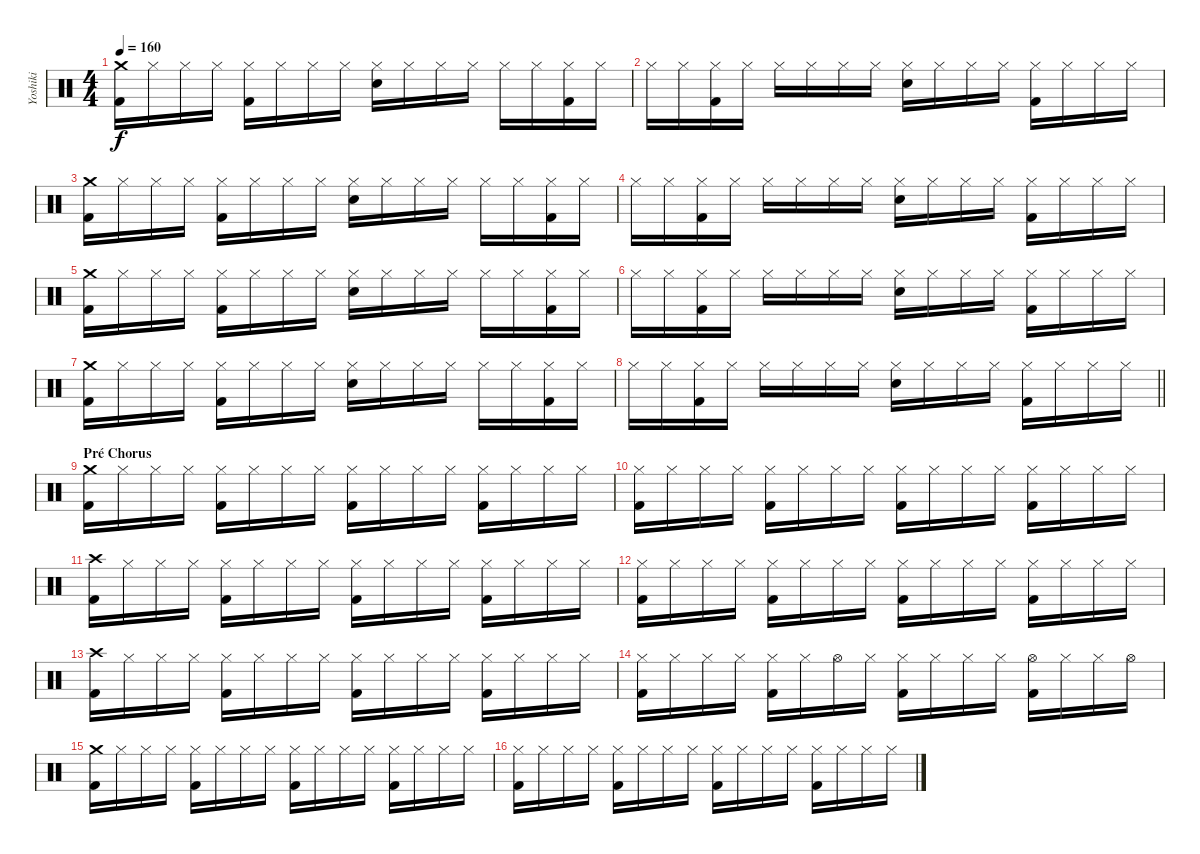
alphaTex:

\track ("Yoshiki" "Yoshiki") {instrument percussion}
\staff {score}
\articulation defaults
\ts (4 4)
\tempo 160
\clef neutral
\ks c
("Crash medium (hit)" "Kick (hit) 2").16{dy f} "Hi-Hat (closed)".16 "Hi-Hat (closed)".16 "Hi-Hat (closed)".16 ("Hi-Hat (closed)" "Kick (hit) 2").16 "Hi-Hat (closed)".16 "Hi-Hat (closed)".16 "Hi-Hat (closed)".16 ("Hi-Hat (closed)" "Snare (hit) 2").16 "Hi-Hat (closed)".16 "Hi-Hat (closed)".16 "Hi-Hat (closed)".16 "Hi-Hat (closed)".16 "Hi-Hat (closed)".16 ("Hi-Hat (closed)" "Kick (hit) 2").16 "Hi-Hat (closed)".16 |
"Hi-Hat (closed)".16 "Hi-Hat (closed)".16 ("Hi-Hat (closed)" "Kick (hit) 2").16 "Hi-Hat (closed)".16 "Hi-Hat (closed)".16 "Hi-Hat (closed)".16 "Hi-Hat (closed)".16 "Hi-Hat (closed)".16 ("Hi-Hat (closed)" "Snare (hit) 2").16 "Hi-Hat (closed)".16 "Hi-Hat (closed)".16 "Hi-Hat (closed)".16 ("Hi-Hat (closed)" "Kick (hit) 2").16 "Hi-Hat (closed)".16 "Hi-Hat (closed)".16 "Hi-Hat (closed)".16 |
("Crash medium (hit)" "Kick (hit) 2").16 "Hi-Hat (closed)".16 "Hi-Hat (closed)".16 "Hi-Hat (closed)".16 ("Hi-Hat (closed)" "Kick (hit) 2").16 "Hi-Hat (closed)".16 "Hi-Hat (closed)".16 "Hi-Hat (closed)".16 ("Hi-Hat (closed)" "Snare (hit) 2").16 "Hi-Hat (closed)".16 "Hi-Hat (closed)".16 "Hi-Hat (closed)".16 "Hi-Hat (closed)".16 "Hi-Hat (closed)".16 ("Hi-Hat (closed)" "Kick (hit) 2").16 "Hi-Hat (closed)".16 |
"Hi-Hat (closed)".16 "Hi-Hat (closed)".16 ("Hi-Hat (closed)" "Kick (hit) 2").16 "Hi-Hat (closed)".16 "Hi-Hat (closed)".16 "Hi-Hat (closed)".16 "Hi-Hat (closed)".16 "Hi-Hat (closed)".16 ("Hi-Hat (closed)" "Snare (hit) 2").16 "Hi-Hat (closed)".16 "Hi-Hat (closed)".16 "Hi-Hat (closed)".16 ("Hi-Hat (closed)" "Kick (hit) 2").16 "Hi-Hat (closed)".16 "Hi-Hat (closed)".16 "Hi-Hat (closed)".16 |
("Crash medium (hit)" "Kick (hit) 2").16 "Hi-Hat (closed)".16 "Hi-Hat (closed)".16 "Hi-Hat (closed)".16 ("Hi-Hat (closed)" "Kick (hit) 2").16 "Hi-Hat (closed)".16 "Hi-Hat (closed)".16 "Hi-Hat (closed)".16 ("Hi-Hat (closed)" "Snare (hit) 2").16 "Hi-Hat (closed)".16 "Hi-Hat (closed)".16 "Hi-Hat (closed)".16 "Hi-Hat (closed)".16 "Hi-Hat (closed)".16 ("Hi-Hat (closed)" "Kick (hit) 2").16 "Hi-Hat (closed)".16 |
"Hi-Hat (closed)".16 "Hi-Hat (closed)".16 ("Hi-Hat (closed)" "Kick (hit) 2").16 "Hi-Hat (closed)".16 "Hi-Hat (closed)".16 "Hi-Hat (closed)".16 "Hi-Hat (closed)".16 "Hi-Hat (closed)".16 ("Hi-Hat (closed)" "Snare (hit) 2").16 "Hi-Hat (closed)".16 "Hi-Hat (closed)".16 "Hi-Hat (closed)".16 ("Hi-Hat (closed)" "Kick (hit) 2").16 "Hi-Hat (closed)".16 "Hi-Hat (closed)".16 "Hi-Hat (closed)".16 |
("Crash medium (hit)" "Kick (hit) 2").16 "Hi-Hat (closed)".16 "Hi-Hat (closed)".16 "Hi-Hat (closed)".16 ("Hi-Hat (closed)" "Kick (hit) 2").16 "Hi-Hat (closed)".16 "Hi-Hat (closed)".16 "Hi-Hat (closed)".16 ("Hi-Hat (closed)" "Snare (hit) 2").16 "Hi-Hat (closed)".16 "Hi-Hat (closed)".16 "Hi-Hat (closed)".16 "Hi-Hat (closed)".16 "Hi-Hat (closed)".16 ("Hi-Hat (closed)" "Kick (hit) 2").16 "Hi-Hat (closed)".16 |
\barLineRight lightlight "Hi-Hat (closed)".16 "Hi-Hat (closed)".16
("Hi-Hat (closed)" "Kick (hit) 2").16 "Hi-Hat (closed)".16 "Hi-Hat (closed)".16 "Hi-Hat (closed)".16 "Hi-Hat (closed)".16 "Hi-Hat (closed)".16 ("Hi-Hat (closed)" "Snare (hit) 2").16 "Hi-Hat (closed)".16 "Hi-Hat (closed)".16 "Hi-Hat (closed)".16 ("Hi-Hat (closed)" "Kick (hit) 2").16 "Hi-Hat (closed)".16 "Hi-Hat (closed)".16 "Hi-Hat (closed)".16 |
\section ("" "Pré Chorus")
("Crash medium (hit)" "Kick (hit) 2").16 "Hi-Hat (closed)".16 "Hi-Hat (closed)".16 "Hi-Hat (closed)".16 ("Hi-Hat (closed)" "Kick (hit) 2").16 "Hi-Hat (closed)".16 "Hi-Hat (closed)".16 "Hi-Hat (closed)".16 ("Hi-Hat (closed)" "Kick (hit) 2").16 "Hi-Hat (closed)".16 "Hi-Hat (closed)".16 "Hi-Hat (closed)".16 ("Hi-Hat (closed)" "Kick (hit) 2").16 "Hi-Hat (closed)".16 "Hi-Hat (closed)".16 "Hi-Hat (closed)".16 |
("Hi-Hat (closed)" "Kick (hit) 2").16 "Hi-Hat (closed)".16 "Hi-Hat (closed)".16 "Hi-Hat (closed)".16 ("Hi-Hat (closed)" "Kick (hit) 2").16 "Hi-Hat (closed)".16 "Hi-Hat (closed)".16 "Hi-Hat (closed)".16 ("Hi-Hat (closed)" "Kick (hit) 2").16 "Hi-Hat (closed)".16 "Hi-Hat (closed)".16 "Hi-Hat (closed)".16 ("Hi-Hat (closed)" "Kick (hit) 2").16 "Hi-Hat (closed)".16 "Hi-Hat (closed)".16 "Hi-Hat (closed)".16 |
("Crash high (hit)" "Kick (hit) 2").16 "Hi-Hat (closed)".16 "Hi-Hat (closed)".16 "Hi-Hat (closed)".16 ("Hi-Hat (closed)" "Kick (hit) 2").16 "Hi-Hat (closed)".16 "Hi-Hat (closed)".16 "Hi-Hat (closed)".16 ("Hi-Hat (closed)" "Kick (hit) 2").16 "Hi-Hat (closed)".16 "Hi-Hat (closed)".16 "Hi-Hat (closed)".16 ("Hi-Hat (closed)" "Kick (hit) 2").16 "Hi-Hat (closed)".16 "Hi-Hat (closed)".16 "Hi-Hat (closed)".16 |
("Hi-Hat (closed)" "Kick (hit) 2").16 "Hi-Hat (closed)".16 "Hi-Hat (closed)".16 "Hi-Hat (closed)".16 ("Hi-Hat (closed)" "Kick (hit) 2").16 "Hi-Hat (closed)".16 "Hi-Hat (closed)".16 "Hi-Hat (closed)".16 ("Hi-Hat (closed)" "Kick (hit) 2").16 "Hi-Hat (closed)".16 "Hi-Hat (closed)".16 "Hi-Hat (closed)".16 ("Hi-Hat (closed)" "Kick (hit) 2").16 "Hi-Hat (closed)".16 "Hi-Hat (closed)".16 "Hi-Hat (closed)".16 |
("Crash high (hit)" "Kick (hit) 2").16 "Hi-Hat (closed)".16 "Hi-Hat (closed)".16 "Hi-Hat (closed)".16 ("Hi-Hat (closed)" "Kick (hit) 2").16 "Hi-Hat (closed)".16 "Hi-Hat (closed)".16 "Hi-Hat (closed)".16 ("Hi-Hat (closed)" "Kick (hit) 2").16 "Hi-Hat (closed)".16 "Hi-Hat (closed)".16 "Hi-Hat (closed)".16 ("Hi-Hat (closed)" "Kick (hit) 2").16 "Hi-Hat (closed)".16 "Hi-Hat (closed)".16 "Hi-Hat (closed)".16 |
("Hi-Hat (closed)" "Kick (hit) 2").16 "Hi-Hat (closed)".16 "Hi-Hat (closed)".16 "Hi-Hat (closed)".16 ("Hi-Hat (closed)" "Kick (hit) 2").16 "Hi-Hat (closed)".16 "Hi-Hat (open)".16 "Hi-Hat (closed)".16 ("Hi-Hat (closed)" "Kick (hit) 2").16 "Hi-Hat (closed)".16 "Hi-Hat (closed)".16 "Hi-Hat (closed)".16 ("Hi-Hat (open)" "Kick (hit) 2").16 "Hi-Hat (closed)".16 "Hi-Hat (closed)".16 "Hi-Hat (open)".16 |
("Crash medium (hit)" "Kick (hit) 2").16 "Hi-Hat (closed)".16 "Hi-Hat (closed)".16 "Hi-Hat (closed)".16 ("Hi-Hat (closed)" "Kick (hit) 2").16 "Hi-Hat (closed)".16 "Hi-Hat (closed)".16 "Hi-Hat (closed)".16 ("Hi-Hat (closed)" "Kick (hit) 2").16 "Hi-Hat (closed)".16 "Hi-Hat (closed)".16 "Hi-Hat (closed)".16 ("Hi-Hat (closed)" "Kick (hit) 2").16 "Hi-Hat (closed)".16 "Hi-Hat (closed)".16 "Hi-Hat (closed)".16 |
("Hi-Hat (closed)" "Kick (hit) 2").16 "Hi-Hat (closed)".16 "Hi-Hat (closed)".16 "Hi-Hat (closed)".16 ("Hi-Hat (closed)" "Kick (hit) 2").16 "Hi-Hat (closed)".16 "Hi-Hat (closed)".16 "Hi-Hat (closed)".16 ("Hi-Hat (closed)" "Kick (hit) 2").16 "Hi-Hat (closed)".16 "Hi-Hat (closed)".16 "Hi-Hat (closed)".16 ("Hi-Hat (closed)" "Kick (hit) 2").16 "Hi-Hat (closed)".16 "Hi-Hat (closed)".16 "Hi-Hat (closed)".16
